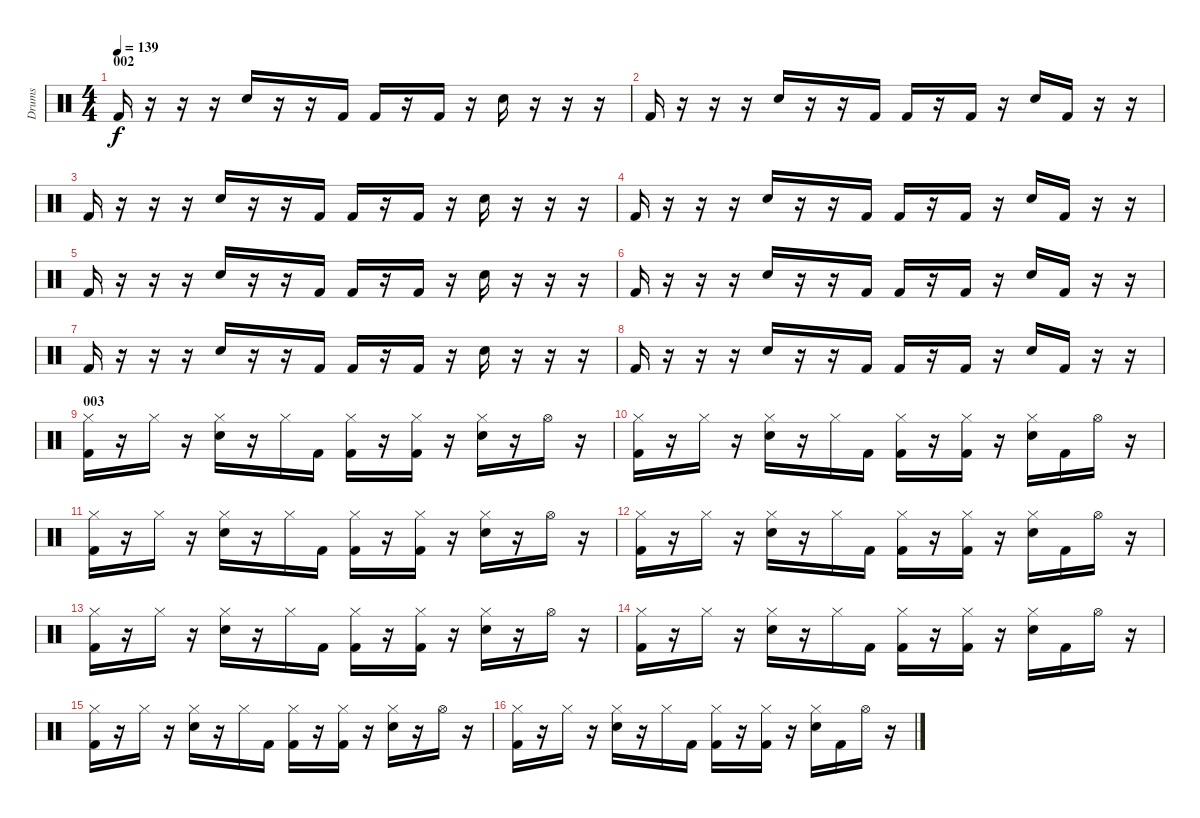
\track ("Drums" "Drums") {instrument percussion}
\staff {score}
\articulation defaults
\ts (4 4)
\section ("" "002")
\tempo 139
\clef neutral
\ks c "Kick (hit) 2".16{dy f}
r.16 r.16 r.16 "Electric Snare (hit)".16 r.16 r.16 "Kick (hit) 2".16 "Kick (hit) 2".16 r.16 "Kick (hit) 2".16 r.16 "Electric Snare (hit)".16 r.16 r.16 r.16 |
"Kick (hit) 2".16 r.16 r.16 r.16 "Electric Snare (hit)".16 r.16 r.16 "Kick (hit) 2".16 "Kick (hit) 2".16 r.16 "Kick (hit) 2".16 r.16 "Electric Snare (hit)".16 "Kick (hit) 2".16 r.16 r.16 |
"Kick (hit) 2".16 r.16 r.16 r.16 "Electric Snare (hit)".16 r.16 r.16 "Kick (hit) 2".16 "Kick (hit) 2".16 r.16 "Kick (hit) 2".16 r.16 "Electric Snare (hit)".16 r.16 r.16 r.16 |
"Kick (hit) 2".16 r.16 r.16 r.16 "Electric Snare (hit)".16 r.16 r.16 "Kick (hit) 2".16 "Kick (hit) 2".16 r.16 "Kick (hit) 2".16 r.16 "Electric Snare (hit)".16 "Kick (hit) 2".16 r.16 r.16 |
"Kick (hit) 2".16 r.16 r.16 r.16 "Electric Snare (hit)".16 r.16 r.16 "Kick (hit) 2".16 "Kick (hit) 2".16 r.16 "Kick (hit) 2".16 r.16 "Electric Snare (hit)".16 r.16 r.16 r.16 |
"Kick (hit) 2".16 r.16 r.16 r.16 "Electric Snare (hit)".16 r.16 r.16 "Kick (hit) 2".16 "Kick (hit) 2".16 r.16 "Kick (hit) 2".16 r.16 "Electric Snare (hit)".16 "Kick (hit) 2".16 r.16 r.16 |
"Kick (hit) 2".16 r.16 r.16 r.16 "Electric Snare (hit)".16 r.16 r.16 "Kick (hit) 2".16 "Kick (hit) 2".16 r.16 "Kick (hit) 2".16 r.16 "Electric Snare (hit)".16 r.16 r.16 r.16 |
"Kick (hit) 2".16 r.16 r.16 r.16 "Electric Snare (hit)".16 r.16 r.16 "Kick (hit) 2".16 "Kick (hit) 2".16 r.16 "Kick (hit) 2".16 r.16 "Electric Snare (hit)".16 "Kick (hit) 2".16 r.16 r.16 |
\section ("" "003")
("Kick (hit) 2" "Hi-Hat (closed)").16 r.16 "Hi-Hat (closed)".16 r.16 ("Electric Snare (hit)" "Hi-Hat (closed)").16 r.16 "Hi-Hat (closed)".16 "Kick (hit) 2".16 ("Kick (hit) 2" "Hi-Hat (closed)").16 r.16 ("Kick (hit) 2" "Hi-Hat (closed)").16 r.16 ("Electric Snare (hit)" "Hi-Hat (closed)").16 r.16 "Hi-Hat (open)".16 r.16 |
("Kick (hit) 2" "Hi-Hat (closed)").16 r.16 "Hi-Hat (closed)".16 r.16 ("Electric Snare (hit)" "Hi-Hat (closed)").16 r.16 "Hi-Hat (closed)".16 "Kick (hit) 2".16 ("Kick (hit) 2" "Hi-Hat (closed)").16 r.16 ("Kick (hit) 2" "Hi-Hat (closed)").16 r.16 ("Electric Snare (hit)" "Hi-Hat (closed)").16 "Kick (hit) 2".16 "Hi-Hat (open)".16 r.16 |
("Kick (hit) 2" "Hi-Hat (closed)").16 r.16 "Hi-Hat (closed)".16 r.16 ("Electric Snare (hit)" "Hi-Hat (closed)").16 r.16 "Hi-Hat (closed)".16 "Kick (hit) 2".16 ("Kick (hit) 2" "Hi-Hat (closed)").16 r.16 ("Kick (hit) 2" "Hi-Hat (closed)").16 r.16 ("Electric Snare (hit)" "Hi-Hat (closed)").16 r.16 "Hi-Hat (open)".16 r.16 |
("Kick (hit) 2" "Hi-Hat (closed)").16 r.16 "Hi-Hat (closed)".16 r.16 ("Electric Snare (hit)" "Hi-Hat (closed)").16 r.16 "Hi-Hat (closed)".16 "Kick (hit) 2".16 ("Kick (hit) 2" "Hi-Hat (closed)").16 r.16 ("Kick (hit) 2" "Hi-Hat (closed)").16 r.16 ("Electric Snare (hit)" "Hi-Hat (closed)").16 "Kick (hit) 2".16 "Hi-Hat (open)".16 r.16 |
("Kick (hit) 2" "Hi-Hat (closed)").16 r.16 "Hi-Hat (closed)".16 r.16 ("Electric Snare (hit)" "Hi-Hat (closed)").16 r.16 "Hi-Hat (closed)".16 "Kick (hit) 2".16 ("Kick (hit) 2" "Hi-Hat (closed)").16 r.16 ("Kick (hit) 2" "Hi-Hat (closed)").16 r.16 ("Electric Snare (hit)" "Hi-Hat (closed)").16 r.16 "Hi-Hat (open)".16 r.16 |
("Kick (hit) 2" "Hi-Hat (closed)").16 r.16 "Hi-Hat (closed)".16 r.16 ("Electric Snare (hit)" "Hi-Hat (closed)").16 r.16 "Hi-Hat (closed)".16 "Kick (hit) 2".16 ("Kick (hit) 2" "Hi-Hat (closed)").16 r.16 ("Kick (hit) 2" "Hi-Hat (closed)").16 r.16 ("Electric Snare (hit)" "Hi-Hat (closed)").16 "Kick (hit) 2".16 "Hi-Hat (open)".16 r.16 |
("Kick (hit) 2" "Hi-Hat (closed)").16 r.16 "Hi-Hat (closed)".16 r.16 ("Electric Snare (hit)" "Hi-Hat (closed)").16 r.16 "Hi-Hat (closed)".16 "Kick (hit) 2".16 ("Kick (hit) 2" "Hi-Hat (closed)").16 r.16 ("Kick (hit) 2" "Hi-Hat (closed)").16 r.16 ("Electric Snare (hit)" "Hi-Hat (closed)").16 r.16 "Hi-Hat (open)".16 r.16 |
("Kick (hit) 2" "Hi-Hat (closed)").16 r.16 "Hi-Hat (closed)".16 r.16 ("Electric Snare (hit)" "Hi-Hat (closed)").16 r.16 "Hi-Hat (closed)".16 "Kick (hit) 2".16 ("Kick (hit) 2" "Hi-Hat (closed)").16 r.16 ("Kick (hit) 2" "Hi-Hat (closed)").16 r.16 ("Electric Snare (hit)" "Hi-Hat (closed)").16 "Kick (hit) 2".16 "Hi-Hat (open)".16 r.16
